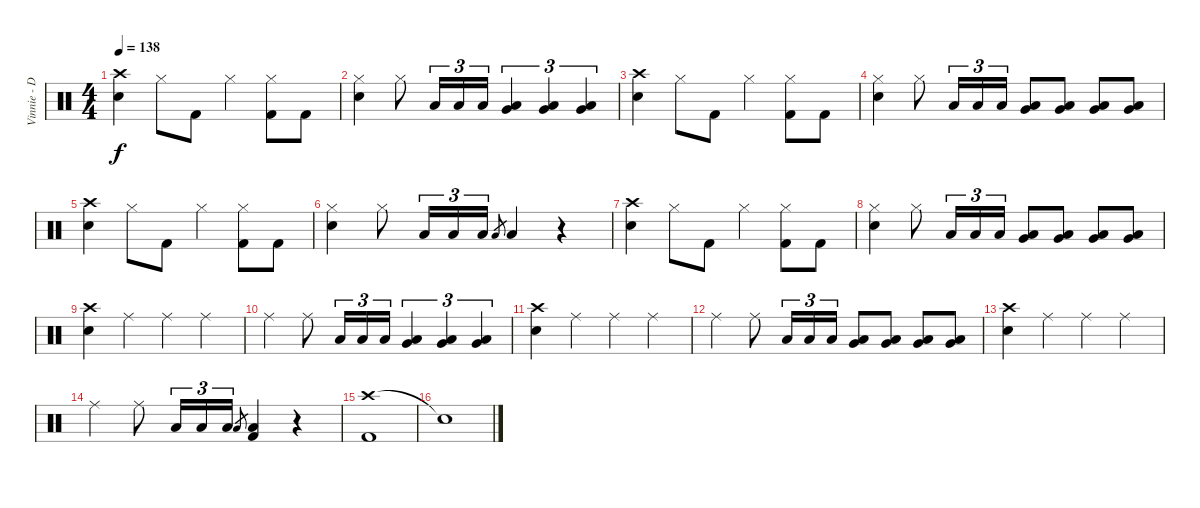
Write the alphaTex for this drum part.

\track ("Vinnie - Drums" "Vinnie - D") {instrument percussion}
\staff {score}
\articulation defaults
\ts (4 4)
\tempo 138
\clef neutral
\ks c
("Crash high (hit)" "Electric Snare (hit)").4{dy f} "Hi-Hat (closed)".8 "Kick (hit) 2".8 "Hi-Hat (closed)".4 ("Hi-Hat (closed)" "Kick (hit) 2").8 "Kick (hit) 2".8 |
("Hi-Hat (closed)" "Electric Snare (hit)").4 "Hi-Hat (closed)".8 "Low Tom (hit)".16{tu (3 2)} "Low Tom (hit)".16{tu (3 2)} "Low Tom (hit)".16{tu (3 2)} ("Low Tom (hit)" "Very Low Tom (hit)").4{tu (3 2)} ("Low Tom (hit)" "Very Low Tom (hit)").4{tu (3 2)} ("Low Tom (hit)" "Very Low Tom (hit)").4{tu (3 2)} |
("Crash high (hit)" "Electric Snare (hit)").4 "Hi-Hat (closed)".8 "Kick (hit) 2".8 "Hi-Hat (closed)".4 ("Hi-Hat (closed)" "Kick (hit) 2").8 "Kick (hit) 2".8 |
("Hi-Hat (closed)" "Electric Snare (hit)").4 "Hi-Hat (closed)".8 "Low Tom (hit)".16{tu (3 2)} "Low Tom (hit)".16{tu (3 2)} "Low Tom (hit)".16{tu (3 2)} ("Low Tom (hit)" "Very Low Tom (hit)").8 ("Low Tom (hit)" "Very Low Tom (hit)").8 ("Low Tom (hit)" "Very Low Tom (hit)").8 ("Low Tom (hit)" "Very Low Tom (hit)").8 |
("Crash high (hit)" "Electric Snare (hit)").4 "Hi-Hat (closed)".8 "Kick (hit) 2".8 "Hi-Hat (closed)".4 ("Hi-Hat (closed)" "Kick (hit) 2").8 "Kick (hit) 2".8 |
("Hi-Hat (closed)" "Electric Snare (hit)").4 "Hi-Hat (closed)".8 "Low Tom (hit)".16{tu (3 2)} "Low Tom (hit)".16{tu (3 2)} "Low Tom (hit)".16{tu (3 2)} "Low Tom (hit)".8{gr} "Low Tom (hit)".4 r.4 |
("Crash high (hit)" "Electric Snare (hit)").4 "Hi-Hat (closed)".8 "Kick (hit) 2".8 "Hi-Hat (closed)".4 ("Hi-Hat (closed)" "Kick (hit) 2").8 "Kick (hit) 2".8 |
("Hi-Hat (closed)" "Electric Snare (hit)").4 "Hi-Hat (closed)".8 "Low Tom (hit)".16{tu (3 2)} "Low Tom (hit)".16{tu (3 2)} "Low Tom (hit)".16{tu (3 2)} ("Low Tom (hit)" "Very Low Tom (hit)").8 ("Low Tom (hit)" "Very Low Tom (hit)").8 ("Low Tom (hit)" "Very Low Tom (hit)").8 ("Low Tom (hit)" "Very Low Tom (hit)").8 |
("Crash high (hit)" "Electric Snare (hit)").4 "Ride (middle)".4 "Ride (middle)".4 "Ride (middle)".4 |
"Ride (middle)".4 "Ride (middle)".8 "Low Tom (hit)".16{tu (3 2)} "Low Tom (hit)".16{tu (3 2)} "Low Tom (hit)".16{tu (3 2)} ("Low Tom (hit)" "Very Low Tom (hit)").4{tu (3 2)} ("Low Tom (hit)" "Very Low Tom (hit)").4{tu (3 2)} ("Low Tom (hit)" "Very Low Tom (hit)").4{tu (3 2)} |
("Crash high (hit)" "Electric Snare (hit)").4 "Ride (middle)".4 "Ride (middle)".4 "Ride (middle)".4 |
"Ride (middle)".4 "Ride (middle)".8 "Low Tom (hit)".16{tu (3 2)} "Low Tom (hit)".16{tu (3 2)} "Low Tom (hit)".16{tu (3 2)} ("Low Tom (hit)" "Very Low Tom (hit)").8 ("Low Tom (hit)" "Very Low Tom (hit)").8 ("Low Tom (hit)" "Very Low Tom (hit)").8 ("Low Tom (hit)" "Very Low Tom (hit)").8 |
("Crash high (hit)" "Electric Snare (hit)").4 "Ride (middle)".4 "Ride (middle)".4 "Ride (middle)".4 |
"Ride (middle)".4 "Ride (middle)".8 "Low Tom (hit)".16{tu (3 2)} "Low Tom (hit)".16{tu (3 2)} "Low Tom (hit)".16{tu (3 2)} "Low Tom (hit)".8{gr} ("Low Tom (hit)" "Kick (hit) 2").4 r.4 |
("Crash high (hit)" "Kick (hit) 2").1 |
"Snare (hit)"{t}.1
